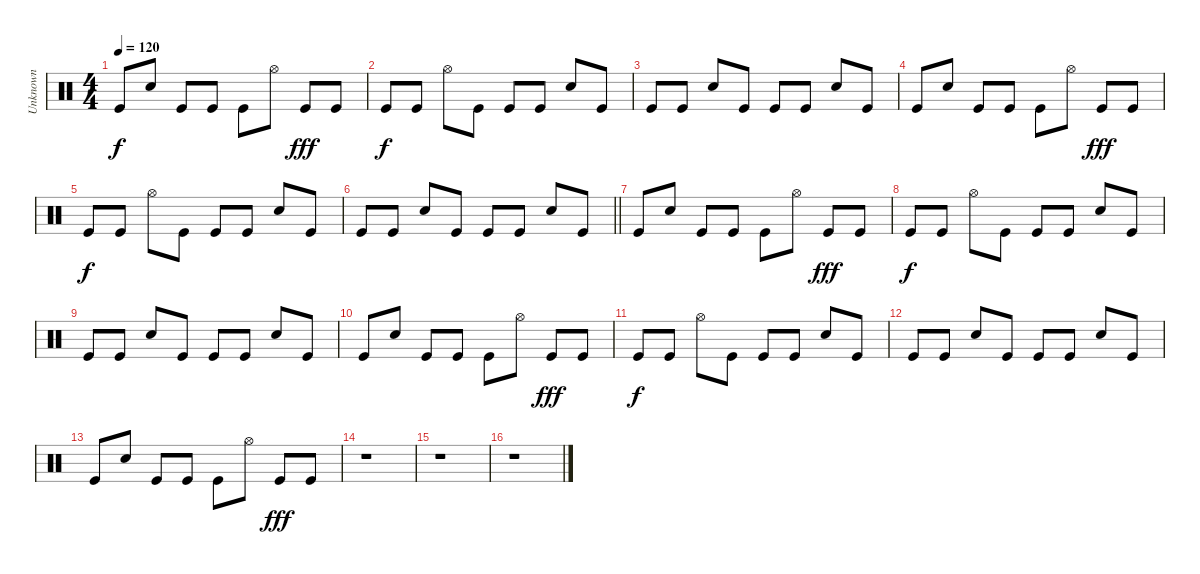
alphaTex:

\track ("Unknown" "Unknown") {instrument percussion}
\staff {score}
\articulation defaults
\ts (4 4)
\tempo 120
\clef neutral
\ks c "Kick (hit)".8{dy f} "Snare (hit) 2".8 "Kick (hit)".8 "Kick (hit)".8 "Kick (hit)".8 "Hi-Hat (open)".8 "Kick (hit)".8{dy fff} "Kick (hit)".8
|
"Kick (hit)".8{dy f} "Kick (hit)".8 "Hi-Hat (open)".8 "Kick (hit)".8 "Kick (hit)".8 "Kick (hit)".8 "Snare (hit) 2".8 "Kick (hit)".8 |
"Kick (hit)".8 "Kick (hit)".8 "Snare (hit) 2".8 "Kick (hit)".8 "Kick (hit)".8 "Kick (hit)".8 "Snare (hit) 2".8 "Kick (hit)".8 |
"Kick (hit)".8 "Snare (hit) 2".8 "Kick (hit)".8 "Kick (hit)".8 "Kick (hit)".8 "Hi-Hat (open)".8 "Kick (hit)".8{dy fff} "Kick (hit)".8 |
"Kick (hit)".8{dy f} "Kick (hit)".8 "Hi-Hat (open)".8 "Kick (hit)".8 "Kick (hit)".8 "Kick (hit)".8 "Snare (hit) 2".8 "Kick (hit)".8 |
\barLineRight lightlight "Kick (hit)".8 "Kick (hit)".8 "Snare (hit) 2".8 "Kick (hit)".8 "Kick (hit)".8 "Kick (hit)".8 "Snare (hit) 2".8 "Kick (hit)".8
|
"Kick (hit)".8 "Snare (hit) 2".8 "Kick (hit)".8 "Kick (hit)".8 "Kick (hit)".8 "Hi-Hat (open)".8 "Kick (hit)".8{dy fff} "Kick (hit)".8 |
"Kick (hit)".8{dy f} "Kick (hit)".8 "Hi-Hat (open)".8 "Kick (hit)".8 "Kick (hit)".8 "Kick (hit)".8 "Snare (hit) 2".8 "Kick (hit)".8 |
"Kick (hit)".8 "Kick (hit)".8 "Snare (hit) 2".8 "Kick (hit)".8 "Kick (hit)".8 "Kick (hit)".8 "Snare (hit) 2".8 "Kick (hit)".8 |
"Kick (hit)".8 "Snare (hit) 2".8 "Kick (hit)".8 "Kick (hit)".8 "Kick (hit)".8 "Hi-Hat (open)".8 "Kick (hit)".8{dy fff} "Kick (hit)".8 |
"Kick (hit)".8{dy f} "Kick (hit)".8 "Hi-Hat (open)".8 "Kick (hit)".8 "Kick (hit)".8 "Kick (hit)".8 "Snare (hit) 2".8 "Kick (hit)".8 |
"Kick (hit)".8 "Kick (hit)".8 "Snare (hit) 2".8 "Kick (hit)".8 "Kick (hit)".8 "Kick (hit)".8 "Snare (hit) 2".8 "Kick (hit)".8 |
"Kick (hit)".8 "Snare (hit) 2".8 "Kick (hit)".8 "Kick (hit)".8 "Kick (hit)".8 "Hi-Hat (open)".8 "Kick (hit)".8{dy fff} "Kick (hit)".8 |
r.1 |
r.1 |
r.1
